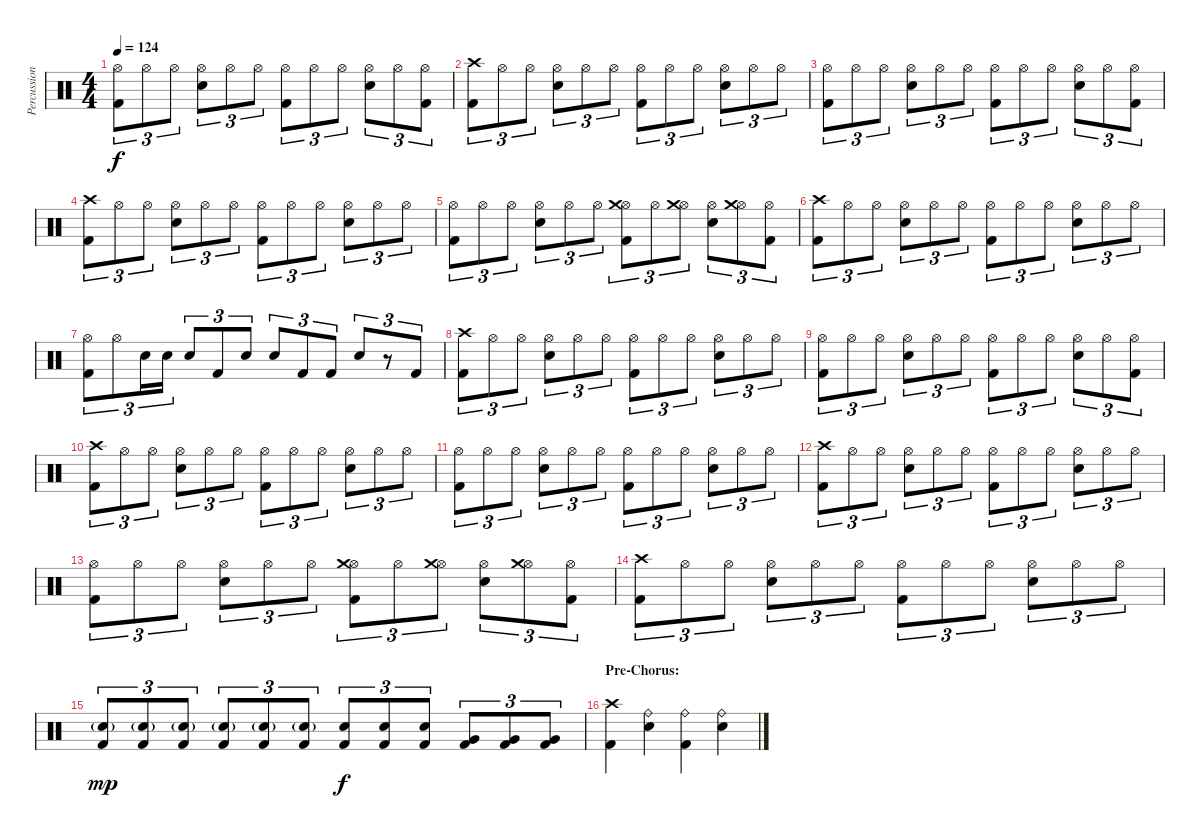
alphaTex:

\track ("Percussion" "Percussion") {instrument percussion}
\staff {score}
\articulation defaults
\ts (4 4)
\tempo 124
\clef neutral
\ks c
("Hi-Hat (open)" "Kick (hit) 2").8{tu (3 2) dy f} "Hi-Hat (open)".8{tu (3 2)} "Hi-Hat (open)".8{tu (3 2)} ("Hi-Hat (open)" "Snare (hit) 2").8{tu (3 2)} "Hi-Hat (open)".8{tu (3 2)} "Hi-Hat (open)".8{tu (3 2)} ("Hi-Hat (open)" "Kick (hit) 2").8{tu (3 2)} "Hi-Hat (open)".8{tu (3 2)} "Hi-Hat (open)".8{tu (3 2)} ("Hi-Hat (open)" "Snare (hit) 2").8{tu (3 2)} "Hi-Hat (open)".8{tu (3 2)} ("Hi-Hat (open)" "Kick (hit) 2").8{tu (3 2)} |
("Crash high (hit)" "Kick (hit) 2").8{tu (3 2)} "Hi-Hat (open)".8{tu (3 2)} "Hi-Hat (open)".8{tu (3 2)} ("Hi-Hat (open)" "Snare (hit) 2").8{tu (3 2)} "Hi-Hat (open)".8{tu (3 2)} "Hi-Hat (open)".8{tu (3 2)} ("Hi-Hat (open)" "Kick (hit) 2").8{tu (3 2)} "Hi-Hat (open)".8{tu (3 2)} "Hi-Hat (open)".8{tu (3 2)} ("Hi-Hat (open)" "Snare (hit) 2").8{tu (3 2)} "Hi-Hat (open)".8{tu (3 2)} "Hi-Hat (open)".8{tu (3 2)} |
("Hi-Hat (open)" "Kick (hit) 2").8{tu (3 2)} "Hi-Hat (open)".8{tu (3 2)} "Hi-Hat (open)".8{tu (3 2)} ("Hi-Hat (open)" "Snare (hit) 2").8{tu (3 2)} "Hi-Hat (open)".8{tu (3 2)} "Hi-Hat (open)".8{tu (3 2)} ("Hi-Hat (open)" "Kick (hit) 2").8{tu (3 2)} "Hi-Hat (open)".8{tu (3 2)} "Hi-Hat (open)".8{tu (3 2)} ("Hi-Hat (open)" "Snare (hit) 2").8{tu (3 2)} "Hi-Hat (open)".8{tu (3 2)} ("Hi-Hat (open)" "Kick (hit) 2").8{tu (3 2)} |
("Crash high (hit)" "Kick (hit) 2").8{tu (3 2)} "Hi-Hat (open)".8{tu (3 2)} "Hi-Hat (open)".8{tu (3 2)} ("Hi-Hat (open)" "Snare (hit) 2").8{tu (3 2)} "Hi-Hat (open)".8{tu (3 2)} "Hi-Hat (open)".8{tu (3 2)} ("Hi-Hat (open)" "Kick (hit) 2").8{tu (3 2)} "Hi-Hat (open)".8{tu (3 2)} "Hi-Hat (open)".8{tu (3 2)} ("Hi-Hat (open)" "Snare (hit) 2").8{tu (3 2)} "Hi-Hat (open)".8{tu (3 2)} "Hi-Hat (open)".8{tu (3 2)} |
("Hi-Hat (open)" "Kick (hit) 2").8{tu (3 2)} "Hi-Hat (open)".8{tu (3 2)} "Hi-Hat (open)".8{tu (3 2)} ("Hi-Hat (open)" "Snare (hit) 2").8{tu (3 2)} "Hi-Hat (open)".8{tu (3 2)} "Hi-Hat (open)".8{tu (3 2)} ("Hi-Hat (open)" "Crash medium (hit)" "Kick (hit) 2").8{tu (3 2)} "Hi-Hat (open)".8{tu (3 2)} ("Hi-Hat (open)" "Crash medium (hit)").8{tu (3 2)} ("Hi-Hat (open)" "Snare (hit) 2").8{tu (3 2)} ("Hi-Hat (open)" "Crash medium (hit)").8{tu (3 2)} ("Hi-Hat (open)" "Kick (hit) 2").8{tu (3 2)} |
("Crash high (hit)" "Kick (hit) 2").8{tu (3 2)} "Hi-Hat (open)".8{tu (3 2)} "Hi-Hat (open)".8{tu (3 2)} ("Hi-Hat (open)" "Snare (hit) 2").8{tu (3 2)} "Hi-Hat (open)".8{tu (3 2)} "Hi-Hat (open)".8{tu (3 2)} ("Hi-Hat (open)" "Kick (hit) 2").8{tu (3 2)} "Hi-Hat (open)".8{tu (3 2)} "Hi-Hat (open)".8{tu (3 2)} ("Hi-Hat (open)" "Snare (hit) 2").8{tu (3 2)} "Hi-Hat (open)".8{tu (3 2)} "Hi-Hat (open)".8{tu (3 2)} |
("Hi-Hat (open)" "Kick (hit) 2").8{tu (3 2)} "Hi-Hat (open)".8{tu (3 2)} "Snare (hit) 2".16{tu (3 2)} "Snare (hit) 2".16{tu (3 2)} "Snare (hit) 2".8{tu (3 2)} "Kick (hit) 2".8{tu (3 2)} "Snare (hit) 2".8{tu (3 2)} "Snare (hit) 2".8{tu (3 2)} "Kick (hit) 2".8{tu (3 2)} "Kick (hit) 2".8{tu (3 2)} "Snare (hit) 2".8{tu (3 2)} r.8{tu (3 2)} "Kick (hit) 2".8{tu (3 2)} |
("Crash high (hit)" "Kick (hit) 2").8{tu (3 2)} "Hi-Hat (open)".8{tu (3 2)} "Hi-Hat (open)".8{tu (3 2)} ("Hi-Hat (open)" "Snare (hit) 2").8{tu (3 2)} "Hi-Hat (open)".8{tu (3 2)} "Hi-Hat (open)".8{tu (3 2)} ("Hi-Hat (open)" "Kick (hit) 2").8{tu (3 2)} "Hi-Hat (open)".8{tu (3 2)} "Hi-Hat (open)".8{tu (3 2)} ("Hi-Hat (open)" "Snare (hit) 2").8{tu (3 2)} "Hi-Hat (open)".8{tu (3 2)} "Hi-Hat (open)".8{tu (3 2)} |
("Hi-Hat (open)" "Kick (hit) 2").8{tu (3 2)} "Hi-Hat (open)".8{tu (3 2)} "Hi-Hat (open)".8{tu (3 2)} ("Hi-Hat (open)" "Snare (hit) 2").8{tu (3 2)} "Hi-Hat (open)".8{tu (3 2)} "Hi-Hat (open)".8{tu (3 2)} ("Hi-Hat (open)" "Kick (hit) 2").8{tu (3 2)} "Hi-Hat (open)".8{tu (3 2)} "Hi-Hat (open)".8{tu (3 2)} ("Hi-Hat (open)" "Snare (hit) 2").8{tu (3 2)} "Hi-Hat (open)".8{tu (3 2)} ("Hi-Hat (open)" "Kick (hit) 2").8{tu (3 2)} |
("Crash high (hit)" "Kick (hit) 2").8{tu (3 2)} "Hi-Hat (open)".8{tu (3 2)} "Hi-Hat (open)".8{tu (3 2)} ("Hi-Hat (open)" "Snare (hit) 2").8{tu (3 2)} "Hi-Hat (open)".8{tu (3 2)} "Hi-Hat (open)".8{tu (3 2)} ("Hi-Hat (open)" "Kick (hit) 2").8{tu (3 2)} "Hi-Hat (open)".8{tu (3 2)} "Hi-Hat (open)".8{tu (3 2)} ("Hi-Hat (open)" "Snare (hit) 2").8{tu (3 2)} "Hi-Hat (open)".8{tu (3 2)} "Hi-Hat (open)".8{tu (3 2)} |
("Hi-Hat (open)" "Kick (hit) 2").8{tu (3 2)} "Hi-Hat (open)".8{tu (3 2)} "Hi-Hat (open)".8{tu (3 2)} ("Hi-Hat (open)" "Snare (hit) 2").8{tu (3 2)} "Hi-Hat (open)".8{tu (3 2)} "Hi-Hat (open)".8{tu (3 2)} ("Hi-Hat (open)" "Kick (hit) 2").8{tu (3 2)} "Hi-Hat (open)".8{tu (3 2)} "Hi-Hat (open)".8{tu (3 2)} ("Hi-Hat (open)" "Snare (hit) 2").8{tu (3 2)} "Hi-Hat (open)".8{tu (3 2)} "Hi-Hat (open)".8{tu (3 2)} |
("Crash high (hit)" "Kick (hit) 2").8{tu (3 2)} "Hi-Hat (open)".8{tu (3 2)} "Hi-Hat (open)".8{tu (3 2)} ("Hi-Hat (open)" "Snare (hit) 2").8{tu (3 2)} "Hi-Hat (open)".8{tu (3 2)} "Hi-Hat (open)".8{tu (3 2)} ("Hi-Hat (open)" "Kick (hit) 2").8{tu (3 2)} "Hi-Hat (open)".8{tu (3 2)} "Hi-Hat (open)".8{tu (3 2)} ("Hi-Hat (open)" "Snare (hit) 2").8{tu (3 2)} "Hi-Hat (open)".8{tu (3 2)} "Hi-Hat (open)".8{tu (3 2)} |
("Hi-Hat (open)" "Kick (hit) 2").8{tu (3 2)} "Hi-Hat (open)".8{tu (3 2)} "Hi-Hat (open)".8{tu (3 2)} ("Hi-Hat (open)" "Snare (hit) 2").8{tu (3 2)} "Hi-Hat (open)".8{tu (3 2)} "Hi-Hat (open)".8{tu (3 2)} ("Hi-Hat (open)" "Crash medium (hit)" "Kick (hit) 2").8{tu (3 2)} "Hi-Hat (open)".8{tu (3 2)} ("Hi-Hat (open)" "Crash medium (hit)").8{tu (3 2)} ("Hi-Hat (open)" "Snare (hit) 2").8{tu (3 2)} ("Hi-Hat (open)" "Crash medium (hit)").8{tu (3 2)} ("Hi-Hat (open)" "Kick (hit) 2").8{tu (3 2)} |
("Crash high (hit)" "Kick (hit) 2").8{tu (3 2)} "Hi-Hat (open)".8{tu (3 2)} "Hi-Hat (open)".8{tu (3 2)} ("Hi-Hat (open)" "Snare (hit) 2").8{tu (3 2)} "Hi-Hat (open)".8{tu (3 2)} "Hi-Hat (open)".8{tu (3 2)} ("Hi-Hat (open)" "Kick (hit) 2").8{tu (3 2)} "Hi-Hat (open)".8{tu (3 2)} "Hi-Hat (open)".8{tu (3 2)} ("Hi-Hat (open)" "Snare (hit) 2").8{tu (3 2)} "Hi-Hat (open)".8{tu (3 2)} "Hi-Hat (open)".8{tu (3 2)} |
("Snare (hit) 2"{g} "Kick (hit) 2").8{tu (3 2) dy mp} ("Snare (hit) 2"{g} "Kick (hit) 2").8{tu (3 2)} ("Snare (hit) 2"{g} "Kick (hit) 2").8{tu (3 2)} ("Snare (hit) 2"{g} "Kick (hit) 2").8{tu (3 2)} ("Snare (hit) 2"{g} "Kick (hit) 2").8{tu (3 2)} ("Snare (hit) 2"{g} "Kick (hit) 2").8{tu (3 2)} ("Snare (hit) 2" "Kick (hit) 2").8{tu (3 2) dy f} ("Snare (hit) 2" "Kick (hit) 2").8{tu (3 2)} ("Snare (hit) 2" "Kick (hit) 2").8{tu (3 2)} ("Very Low Tom (hit)" "Kick (hit) 2").8{tu (3 2)} ("Very Low Tom (hit)" "Kick (hit) 2").8{tu (3 2)} ("Very Low Tom (hit)" "Kick (hit) 2").8{tu (3 2)} |
\section ("" "Pre-Chorus:")
("Crash high (hit)" "Kick (hit) 2").4 ("Ride (bell)" "Snare (hit) 2").4 ("Ride (bell)" "Kick (hit) 2").4 ("Ride (bell)" "Snare (hit) 2").4
